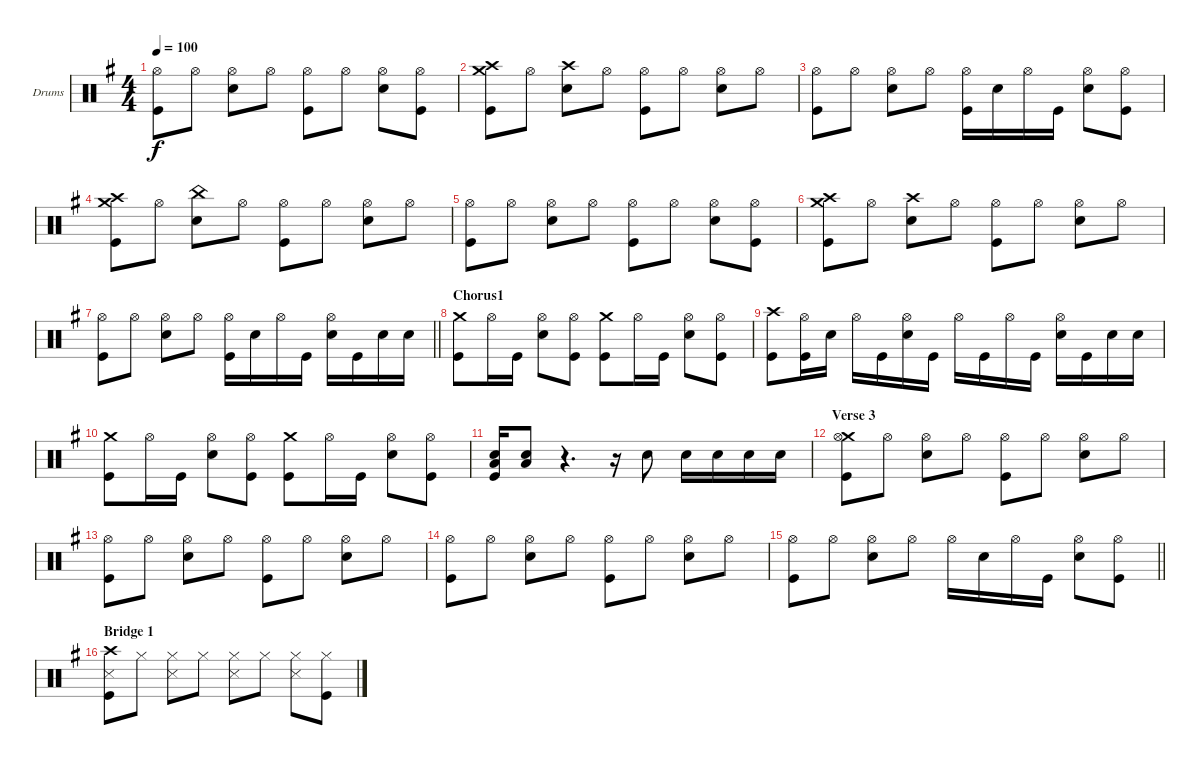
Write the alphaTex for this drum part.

\bracketExtendMode groupsimilarinstruments
\firstSystemTrackNameOrientation horizontal
\otherSystemsTrackNameOrientation horizontal
\track ("drums (Anton Zulganov)" "Drums") {instrument percussion}
\staff {score}
\articulation defaults
\ts (4 4)
\tempo 100
\clef neutral
\ks eminor
("Hi-Hat (open)" "Kick (hit)").8{dy f} "Hi-Hat (open)".8 ("Hi-Hat (open)" "Snare (hit) 2").8 "Hi-Hat (open)".8 ("Hi-Hat (open)" "Kick (hit)").8 "Hi-Hat (open)".8 ("Hi-Hat (open)" "Snare (hit) 2").8 ("Hi-Hat (open)" "Kick (hit)").8 |
("Kick (hit)" "Crash medium (hit)" "Crash high (hit)").8 "Hi-Hat (open)".8 ("Snare (hit) 2" "Crash high (hit)").8 "Hi-Hat (open)".8 ("Hi-Hat (open)" "Kick (hit)").8 "Hi-Hat (open)".8 ("Hi-Hat (open)" "Snare (hit) 2").8 "Hi-Hat (open)".8 |
("Kick (hit)" "Hi-Hat (open)").8 "Hi-Hat (open)".8 ("Hi-Hat (open)" "Snare (hit) 2").8 "Hi-Hat (open)".8 ("Hi-Hat (open)" "Kick (hit)").16 "Snare (hit) 2".16 "Hi-Hat (open)".16 "Kick (hit)".16 ("Hi-Hat (open)" "Snare (hit) 2").8 ("Hi-Hat (open)" "Kick (hit)").8 |
("Crash medium (hit)" "Kick (hit)" "Crash high (hit)").8 "Hi-Hat (open)".8 ("Snare (hit) 2" "China (hit)").8 "Hi-Hat (open)".8 ("Hi-Hat (open)" "Kick (hit)").8 "Hi-Hat (open)".8 ("Hi-Hat (open)" "Snare (hit) 2").8 "Hi-Hat (open)".8 |
("Hi-Hat (open)" "Kick (hit)").8 "Hi-Hat (open)".8 ("Hi-Hat (open)" "Snare (hit) 2").8 "Hi-Hat (open)".8 ("Hi-Hat (open)" "Kick (hit)").8 "Hi-Hat (open)".8 ("Hi-Hat (open)" "Snare (hit) 2").8 ("Hi-Hat (open)" "Kick (hit)").8 |
("Kick (hit)" "Crash medium (hit)" "Crash high (hit)").8 "Hi-Hat (open)".8 ("Snare (hit) 2" "Crash high (hit)").8 "Hi-Hat (open)".8 ("Hi-Hat (open)" "Kick (hit)").8 "Hi-Hat (open)".8 ("Hi-Hat (open)" "Snare (hit) 2").8 "Hi-Hat (open)".8 |
\barLineRight lightlight
("Kick (hit)" "Hi-Hat (open)").8 "Hi-Hat (open)".8 ("Hi-Hat (open)" "Snare (hit) 2").8 "Hi-Hat (open)".8 ("Hi-Hat (open)" "Kick (hit)").16 "Snare (hit) 2".16 "Hi-Hat (open)".16 "Kick (hit)".16 ("Hi-Hat (open)" "Snare (hit) 2").16 "Kick (hit)".16 "Snare (hit) 2".16 "Snare (hit) 2".16 |
\section ("" "Chorus1")
("Crash medium (hit)" "Kick (hit)").8 "Hi-Hat (open)".16 "Kick (hit)".16 ("Hi-Hat (open)" "Snare (hit) 2").8 ("Hi-Hat (open)" "Kick (hit)").8 ("Crash medium (hit)" "Kick (hit)").8 "Hi-Hat (open)".16 "Kick (hit)".16 ("Snare (hit) 2" "Hi-Hat (open)").8 ("Kick (hit)" "Hi-Hat (open)").8 |
("Kick (hit)" "Crash high (hit)").8 ("Hi-Hat (open)" "Kick (hit)").16 "Snare (hit) 2".16 "Hi-Hat (open)".16 "Kick (hit)".16 ("Snare (hit) 2" "Hi-Hat (open)").16 "Kick (hit)".16 "Hi-Hat (open)".16 "Kick (hit)".16 "Hi-Hat (open)".16 "Kick (hit)".16 ("Hi-Hat (open)" "Snare (hit) 2").16 "Kick (hit)".16 "Snare (hit) 2".16 "Snare (hit) 2".16 |
("Crash medium (hit)" "Kick (hit)").8 "Hi-Hat (open)".16 "Kick (hit)".16 ("Hi-Hat (open)" "Snare (hit) 2").8 ("Hi-Hat (open)" "Kick (hit)").8 ("Crash medium (hit)" "Kick (hit)").8 "Hi-Hat (open)".16 "Kick (hit)".16 ("Snare (hit) 2" "Hi-Hat (open)").8 ("Kick (hit)" "Hi-Hat (open)").8 |
("Snare (hit) 2" "Low Tom (hit)" "Kick (hit)").16 ("Snare (hit) 2" "Low Tom (hit)").8 r.4{d} r.16 "Snare (hit) 2".8 "Snare (hit) 2".16 "Snare (hit) 2".16 "Snare (hit) 2".16 "Snare (hit) 2".16 |
\section ("" "Verse 3")
("Crash medium (hit)" "Hi-Hat (open)" "Kick (hit)").8 "Hi-Hat (open)".8 ("Hi-Hat (open)" "Snare (hit) 2").8 "Hi-Hat (open)".8 ("Hi-Hat (open)" "Kick (hit)").8 "Hi-Hat (open)".8 ("Hi-Hat (open)" "Snare (hit) 2").8 "Hi-Hat (open)".8 |
("Kick (hit)" "Hi-Hat (open)").8 "Hi-Hat (open)".8 ("Hi-Hat (open)" "Snare (hit) 2").8 "Hi-Hat (open)".8 ("Hi-Hat (open)" "Kick (hit)").8 "Hi-Hat (open)".8 ("Hi-Hat (open)" "Snare (hit) 2").8 "Hi-Hat (open)".8 |
("Kick (hit)" "Hi-Hat (open)").8 "Hi-Hat (open)".8 ("Hi-Hat (open)" "Snare (hit) 2").8 "Hi-Hat (open)".8 ("Hi-Hat (open)" "Kick (hit)").8 "Hi-Hat (open)".8 ("Hi-Hat (open)" "Snare (hit) 2").8 "Hi-Hat (open)".8 |
\barLineRight lightlight
("Kick (hit)" "Hi-Hat (open)").8 "Hi-Hat (open)".8 ("Hi-Hat (open)" "Snare (hit) 2").8 "Hi-Hat (open)".8 "Hi-Hat (open)".16 "Snare (hit) 2".16 "Hi-Hat (open)".16 "Kick (hit)".16 ("Hi-Hat (open)" "Snare (hit) 2").8 ("Hi-Hat (open)" "Kick (hit)").8 |
\section ("" "Bridge 1")
("Kick (hit)" "Crash high (hit)" "Snare (side stick) 3").8 "Hi-Hat (closed)".8 ("Hi-Hat (closed)" "Snare (side stick) 3").8 "Hi-Hat (closed)".8 ("Hi-Hat (closed)" "Snare (side stick) 3").8 "Hi-Hat (closed)".8 ("Hi-Hat (closed)" "Snare (side stick) 3").8 ("Hi-Hat (closed)" "Kick (hit)").8
